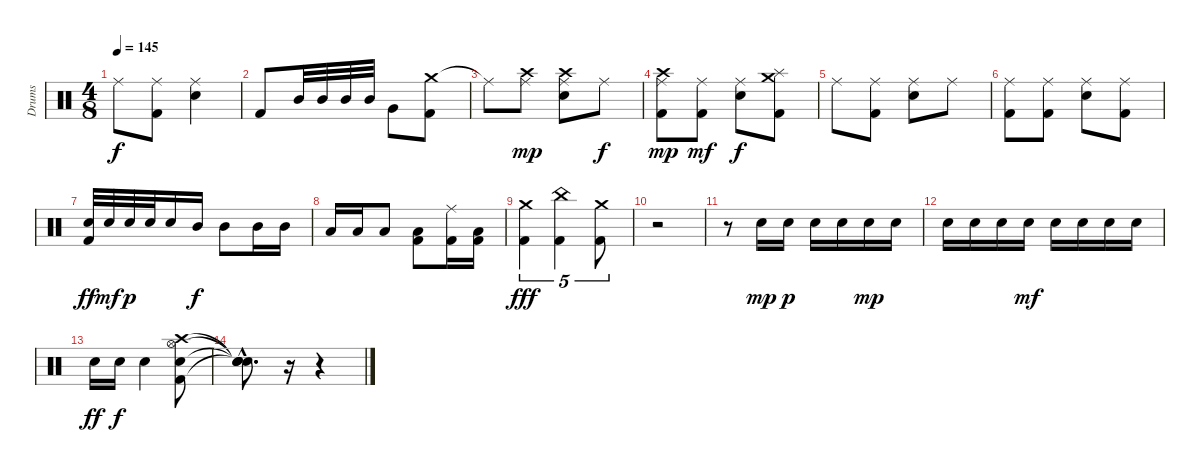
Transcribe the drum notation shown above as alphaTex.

\track ("Drums" "Drums") {instrument percussion}
\staff {score}
\articulation defaults
\ts (4 8)
\tempo 145
\clef neutral
\ks c "Ride (middle)".8{dy f}
("Ride (middle)" "Kick (hit) 2").8 ("Ride (middle)" "Snare (hit) 2").4 |
"Kick (hit) 2".8 "Mid Tom (hit)".32 "Mid Tom (hit)".32 "Mid Tom (hit)".32 "Mid Tom (hit)".32 "Very Low Tom (hit)".8 ("Crash medium (hit)" "Kick (hit) 2").8 |
"Ride (middle)"{t}.8 ("Crash high (hit)" "Ride (middle)").8{dy mp} ("Crash high (hit)" "Ride (middle)" "Snare (hit) 2").8 "Ride (middle)".8{dy f} |
("Ride (middle)" "Crash high (hit)" "Kick (hit) 2").8{dy mp} ("Ride (middle)" "Kick (hit) 2").8{dy mf} ("Ride (middle)" "Snare (hit) 2").8{dy f} ("Splash (hit)" "Crash medium (hit)" "Kick (hit) 2").8 |
"Ride (middle)".8 ("Ride (middle)" "Kick (hit) 2").8 ("Ride (middle)" "Snare (hit) 2").8 "Ride (middle)".8 |
("Ride (middle)" "Kick (hit) 2").8 ("Ride (middle)" "Kick (hit) 2").8 ("Ride (middle)" "Snare (hit) 2").8 ("Ride (middle)" "Kick (hit) 2").8 |
("Snare (hit) 2" "Kick (hit) 2").32{dy ff} "Snare (hit) 2".32{dy mf} "Snare (hit) 2".32{dy p} "Snare (hit) 2".32 "Snare (hit) 2".16 "Mid Tom (hit)".16{dy f} "Mid Tom (hit)".8 "Mid Tom (hit)".16 "Mid Tom (hit)".16 |
"Low Tom (hit)".16 "Low Tom (hit)".16 "Low Tom (hit)".8 ("Low Floor Tom (hit)" "Kick (hit) 2").8 ("Ride (middle)" "Kick (hit) 2").16 ("Low Floor Tom (hit)" "Kick (hit) 2").16 |
("Crash medium (hit)" "Kick (hit) 2").4{tu (5 4) dy fff} ("China (hit)" "Kick (hit) 2").4{tu (5 4)} ("Crash medium (hit)" "Kick (hit) 2").8{tu (5 4)} |
r.2 |
r.8 "Snare (hit) 2".16{dy mp} "Snare (hit) 2".16{dy p} "Snare (hit) 2".16 "Snare (hit) 2".16 "Snare (hit) 2".16{dy mp} "Snare (hit) 2".16 |
"Snare (hit) 2".16 "Snare (hit) 2".16 "Snare (hit) 2".16 "Snare (hit) 2".16{dy mf} "Snare (hit) 2".16 "Snare (hit) 2".16 "Snare (hit) 2".16 "Snare (hit) 2".16 |
"Snare (hit) 2".16{dy ff} "Snare (hit) 2".16{dy f} "Snare (hit) 2".4 ("Crash high (hit)" "Hi-Hat (open)" "Snare (hit) 2" "Kick (hit) 2").8 |
("Snare (hit)"{hac t} "Snare (hit)"{hac t} "Snare (hit)"{hac t} "Snare (hit)"{hac t}).8{d} r.16 r.4
